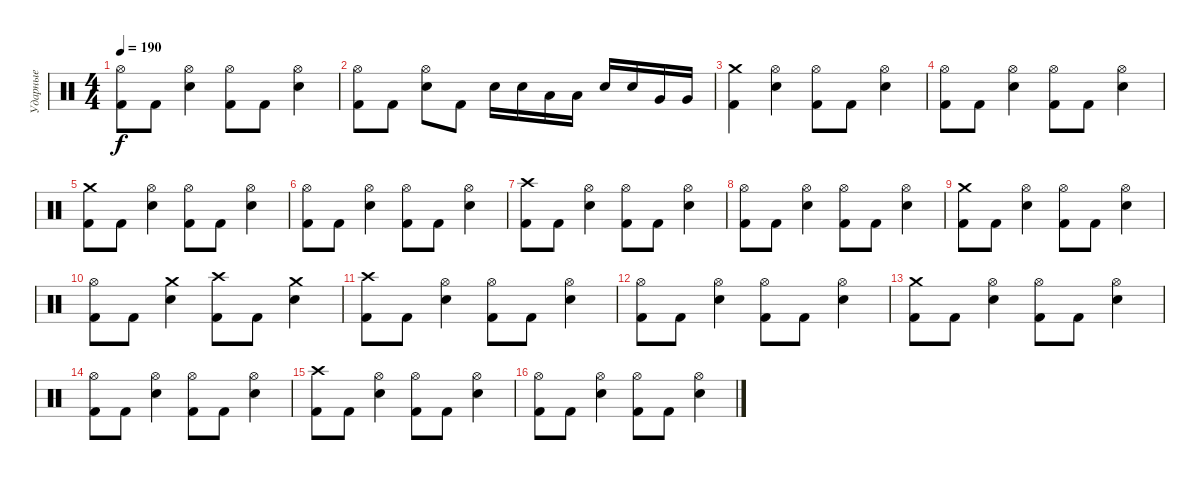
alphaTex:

\track ("Ударные" "Ударные") {instrument percussion}
\staff {score}
\articulation defaults
\ts (4 4)
\tempo 190
\clef neutral
\ks c
("Hi-Hat (open)" "Kick (hit) 2").8{dy f} "Kick (hit) 2".8 ("Hi-Hat (open)" "Snare (hit) 2").4 ("Hi-Hat (open)" "Kick (hit) 2").8 "Kick (hit) 2".8 ("Hi-Hat (open)" "Snare (hit) 2").4 |
("Hi-Hat (open)" "Kick (hit) 2").8 "Kick (hit) 2".8 ("Hi-Hat (open)" "Snare (hit) 2").8 "Kick (hit) 2".8 "Snare (hit) 2".16 "Snare (hit) 2".16 "Low Tom (hit)".16 "Low Tom (hit)".16 "Snare (hit) 2".16 "Snare (hit) 2".16 "Very Low Tom (hit)".16 "Very Low Tom (hit)".16 |
("Crash medium (hit)" "Kick (hit) 2").4 ("Hi-Hat (open)" "Snare (hit) 2").4 ("Hi-Hat (open)" "Kick (hit) 2").8 "Kick (hit) 2".8 ("Hi-Hat (open)" "Snare (hit) 2").4 |
("Hi-Hat (open)" "Kick (hit) 2").8 "Kick (hit) 2".8 ("Hi-Hat (open)" "Snare (hit) 2").4 ("Hi-Hat (open)" "Kick (hit) 2").8 "Kick (hit) 2".8 ("Hi-Hat (open)" "Snare (hit) 2").4 |
("Crash medium (hit)" "Kick (hit) 2").8 "Kick (hit) 2".8 ("Hi-Hat (open)" "Snare (hit) 2").4 ("Hi-Hat (open)" "Kick (hit) 2").8 "Kick (hit) 2".8 ("Hi-Hat (open)" "Snare (hit) 2").4 |
("Hi-Hat (open)" "Kick (hit) 2").8 "Kick (hit) 2".8 ("Hi-Hat (open)" "Snare (hit) 2").4 ("Hi-Hat (open)" "Kick (hit) 2").8 "Kick (hit) 2".8 ("Hi-Hat (open)" "Snare (hit) 2").4 |
("Crash high (hit)" "Kick (hit) 2").8 "Kick (hit) 2".8 ("Hi-Hat (open)" "Snare (hit) 2").4 ("Hi-Hat (open)" "Kick (hit) 2").8 "Kick (hit) 2".8 ("Hi-Hat (open)" "Snare (hit) 2").4 |
("Hi-Hat (open)" "Kick (hit) 2").8 "Kick (hit) 2".8 ("Hi-Hat (open)" "Snare (hit) 2").4 ("Hi-Hat (open)" "Kick (hit) 2").8 "Kick (hit) 2".8 ("Hi-Hat (open)" "Snare (hit) 2").4 |
("Crash medium (hit)" "Kick (hit) 2").8 "Kick (hit) 2".8 ("Hi-Hat (open)" "Snare (hit) 2").4 ("Hi-Hat (open)" "Kick (hit) 2").8 "Kick (hit) 2".8 ("Hi-Hat (open)" "Snare (hit) 2").4 |
("Hi-Hat (open)" "Kick (hit) 2").8 "Kick (hit) 2".8 ("Crash medium (hit)" "Snare (hit) 2").4 ("Crash high (hit)" "Kick (hit) 2").8 "Kick (hit) 2".8 ("Crash medium (hit)" "Snare (hit) 2").4 |
("Crash high (hit)" "Kick (hit) 2").8 "Kick (hit) 2".8 ("Hi-Hat (open)" "Snare (hit) 2").4 ("Hi-Hat (open)" "Kick (hit) 2").8 "Kick (hit) 2".8 ("Hi-Hat (open)" "Snare (hit) 2").4 |
("Hi-Hat (open)" "Kick (hit) 2").8 "Kick (hit) 2".8 ("Hi-Hat (open)" "Snare (hit) 2").4 ("Hi-Hat (open)" "Kick (hit) 2").8 "Kick (hit) 2".8 ("Hi-Hat (open)" "Snare (hit) 2").4 |
("Crash medium (hit)" "Kick (hit) 2").8 "Kick (hit) 2".8 ("Hi-Hat (open)" "Snare (hit) 2").4 ("Hi-Hat (open)" "Kick (hit) 2").8 "Kick (hit) 2".8 ("Hi-Hat (open)" "Snare (hit) 2").4 |
("Hi-Hat (open)" "Kick (hit) 2").8 "Kick (hit) 2".8 ("Hi-Hat (open)" "Snare (hit) 2").4 ("Hi-Hat (open)" "Kick (hit) 2").8 "Kick (hit) 2".8 ("Hi-Hat (open)" "Snare (hit) 2").4 |
("Crash high (hit)" "Kick (hit) 2").8 "Kick (hit) 2".8 ("Hi-Hat (open)" "Snare (hit) 2").4 ("Hi-Hat (open)" "Kick (hit) 2").8 "Kick (hit) 2".8 ("Hi-Hat (open)" "Snare (hit) 2").4 |
("Hi-Hat (open)" "Kick (hit) 2").8 "Kick (hit) 2".8 ("Hi-Hat (open)" "Snare (hit) 2").4 ("Hi-Hat (open)" "Kick (hit) 2").8 "Kick (hit) 2".8 ("Hi-Hat (open)" "Snare (hit) 2").4
